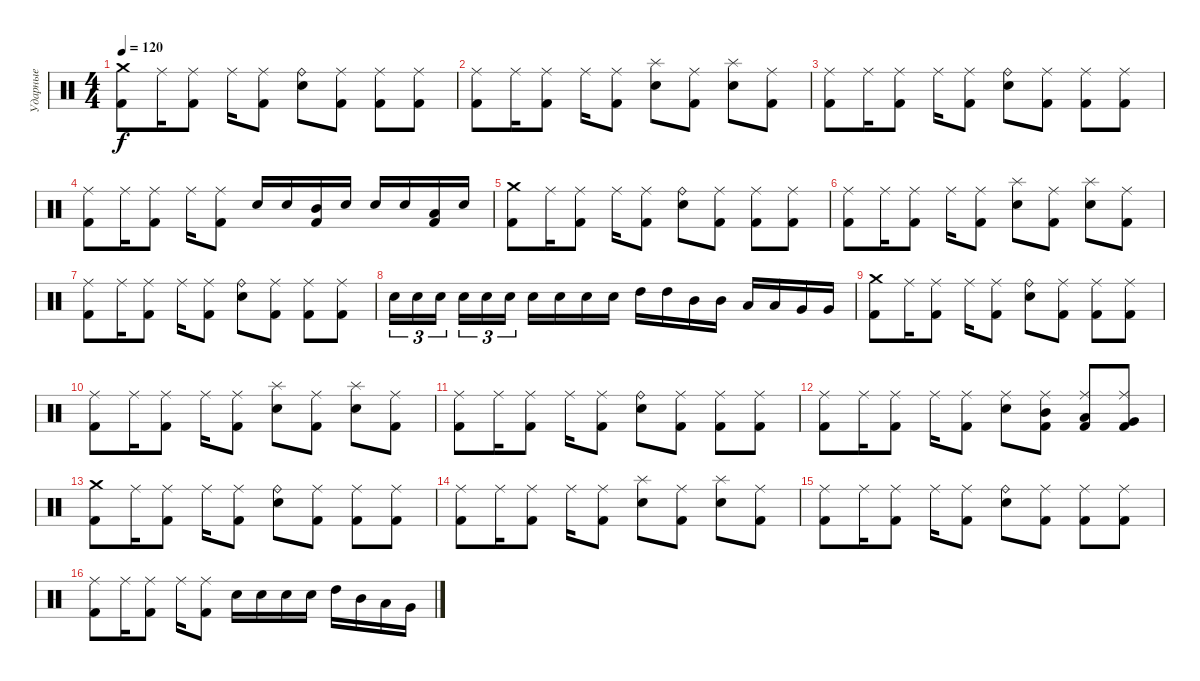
\track ("Ударные" "Ударные") {instrument percussion}
\staff {score}
\articulation defaults
\ts (4 4)
\tempo 120
\clef neutral
\ks c
("Crash medium (hit)" "Kick (hit) 2").8{dy f} "Ride (middle)".16 ("Ride (middle)" "Kick (hit) 2").8 "Ride (middle)".16 ("Ride (middle)" "Kick (hit) 2").8 ("Ride (bell)" "Electric Snare (hit)").8 ("Ride (middle)" "Kick (hit) 2").8 ("Ride (middle)" "Kick (hit) 2").8 ("Ride (middle)" "Kick (hit) 2").8 |
("Ride (middle)" "Kick (hit) 2").8 "Ride (middle)".16 ("Ride (middle)" "Kick (hit) 2").8 "Ride (middle)".16 ("Ride (middle)" "Kick (hit) 2").8 ("Splash (hit)" "Electric Snare (hit)").8 ("Ride (middle)" "Kick (hit) 2").8 ("Splash (hit)" "Electric Snare (hit)").8 ("Ride (middle)" "Kick (hit) 2").8 |
("Ride (middle)" "Kick (hit) 2").8 "Ride (middle)".16 ("Ride (middle)" "Kick (hit) 2").8 "Ride (middle)".16 ("Ride (middle)" "Kick (hit) 2").8 ("Ride (bell)" "Electric Snare (hit)").8 ("Ride (middle)" "Kick (hit) 2").8 ("Ride (middle)" "Kick (hit) 2").8 ("Ride (middle)" "Kick (hit) 2").8 |
("Ride (middle)" "Kick (hit) 2").8 "Ride (middle)".16 ("Ride (middle)" "Kick (hit) 2").8 "Ride (middle)".16 ("Ride (middle)" "Kick (hit) 2").8 "Electric Snare (hit)".16 "Electric Snare (hit)".16 ("Mid Tom (hit)" "Kick (hit) 2").16 "Electric Snare (hit)".16 "Electric Snare (hit)".16 "Electric Snare (hit)".16 ("Low Tom (hit)" "Kick (hit) 2").16 "Electric Snare (hit)".16 |
("Crash medium (hit)" "Kick (hit) 2").8 "Ride (middle)".16 ("Ride (middle)" "Kick (hit) 2").8 "Ride (middle)".16 ("Ride (middle)" "Kick (hit) 2").8 ("Ride (bell)" "Electric Snare (hit)").8 ("Ride (middle)" "Kick (hit) 2").8 ("Ride (middle)" "Kick (hit) 2").8 ("Ride (middle)" "Kick (hit) 2").8 |
("Ride (middle)" "Kick (hit) 2").8 "Ride (middle)".16 ("Ride (middle)" "Kick (hit) 2").8 "Ride (middle)".16 ("Ride (middle)" "Kick (hit) 2").8 ("Splash (hit)" "Electric Snare (hit)").8 ("Ride (middle)" "Kick (hit) 2").8 ("Splash (hit)" "Electric Snare (hit)").8 ("Ride (middle)" "Kick (hit) 2").8 |
("Ride (middle)" "Kick (hit) 2").8 "Ride (middle)".16 ("Ride (middle)" "Kick (hit) 2").8 "Ride (middle)".16 ("Ride (middle)" "Kick (hit) 2").8 ("Ride (bell)" "Electric Snare (hit)").8 ("Ride (middle)" "Kick (hit) 2").8 ("Ride (middle)" "Kick (hit) 2").8 ("Ride (middle)" "Kick (hit) 2").8 |
"Electric Snare (hit)".16{tu (3 2)} "Electric Snare (hit)".16{tu (3 2)} "Electric Snare (hit)".16{tu (3 2) beam splitsecondary} "Electric Snare (hit)".16{tu (3 2)} "Electric Snare (hit)".16{tu (3 2)} "Electric Snare (hit)".16{tu (3 2)} "Electric Snare (hit)".16 "Electric Snare (hit)".16 "Electric Snare (hit)".16 "Electric Snare (hit)".16 "High Tom (hit)".16 "High Tom (hit)".16 "Mid Tom (hit)".16 "Mid Tom (hit)".16 "Low Tom (hit)".16 "Low Tom (hit)".16 "Very Low Tom (hit)".16 "Very Low Tom (hit)".16 |
("Crash medium (hit)" "Kick (hit) 2").8 "Ride (middle)".16 ("Ride (middle)" "Kick (hit) 2").8 "Ride (middle)".16 ("Ride (middle)" "Kick (hit) 2").8 ("Ride (bell)" "Electric Snare (hit)").8 ("Ride (middle)" "Kick (hit) 2").8 ("Ride (middle)" "Kick (hit) 2").8 ("Ride (middle)" "Kick (hit) 2").8 |
("Ride (middle)" "Kick (hit) 2").8 "Ride (middle)".16 ("Ride (middle)" "Kick (hit) 2").8 "Ride (middle)".16 ("Ride (middle)" "Kick (hit) 2").8 ("Splash (hit)" "Electric Snare (hit)").8 ("Ride (middle)" "Kick (hit) 2").8 ("Splash (hit)" "Electric Snare (hit)").8 ("Ride (middle)" "Kick (hit) 2").8 |
("Ride (middle)" "Kick (hit) 2").8 "Ride (middle)".16 ("Ride (middle)" "Kick (hit) 2").8 "Ride (middle)".16 ("Ride (middle)" "Kick (hit) 2").8 ("Ride (bell)" "Electric Snare (hit)").8 ("Ride (middle)" "Kick (hit) 2").8 ("Ride (middle)" "Kick (hit) 2").8 ("Ride (middle)" "Kick (hit) 2").8 |
("Ride (middle)" "Kick (hit) 2").8 "Ride (middle)".16 ("Ride (middle)" "Kick (hit) 2").8 "Ride (middle)".16 ("Ride (middle)" "Kick (hit) 2").8 ("Ride (middle)" "Electric Snare (hit)").8 ("Ride (middle)" "Mid Tom (hit)" "Kick (hit) 2").8 ("Ride (middle)" "Low Tom (hit)" "Kick (hit) 2").8 ("Ride (middle)" "Very Low Tom (hit)" "Kick (hit) 2").8 |
("Crash medium (hit)" "Kick (hit) 2").8 "Ride (middle)".16 ("Ride (middle)" "Kick (hit) 2").8 "Ride (middle)".16 ("Ride (middle)" "Kick (hit) 2").8 ("Ride (bell)" "Electric Snare (hit)").8 ("Ride (middle)" "Kick (hit) 2").8 ("Ride (middle)" "Kick (hit) 2").8 ("Ride (middle)" "Kick (hit) 2").8 |
("Ride (middle)" "Kick (hit) 2").8 "Ride (middle)".16 ("Ride (middle)" "Kick (hit) 2").8 "Ride (middle)".16 ("Ride (middle)" "Kick (hit) 2").8 ("Splash (hit)" "Electric Snare (hit)").8 ("Ride (middle)" "Kick (hit) 2").8 ("Splash (hit)" "Electric Snare (hit)").8 ("Ride (middle)" "Kick (hit) 2").8 |
("Ride (middle)" "Kick (hit) 2").8 "Ride (middle)".16 ("Ride (middle)" "Kick (hit) 2").8 "Ride (middle)".16 ("Ride (middle)" "Kick (hit) 2").8 ("Ride (bell)" "Electric Snare (hit)").8 ("Ride (middle)" "Kick (hit) 2").8 ("Ride (middle)" "Kick (hit) 2").8 ("Ride (middle)" "Kick (hit) 2").8 |
("Ride (middle)" "Kick (hit) 2").8 "Ride (middle)".16 ("Ride (middle)" "Kick (hit) 2").8 "Ride (middle)".16 ("Ride (middle)" "Kick (hit) 2").8 "Electric Snare (hit)".16 "Electric Snare (hit)".16 "Electric Snare (hit)".16 "Electric Snare (hit)".16 "High Tom (hit)".16 "Mid Tom (hit)".16 "Low Tom (hit)".16 "Very Low Tom (hit)".16
